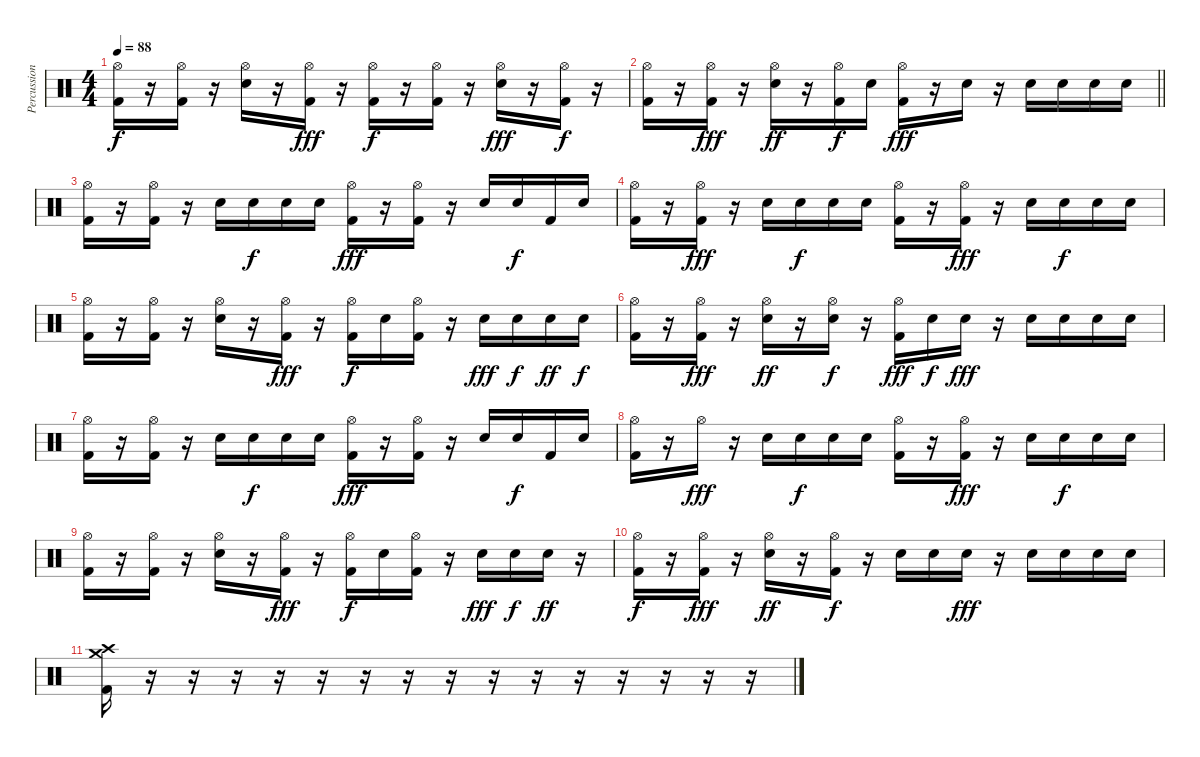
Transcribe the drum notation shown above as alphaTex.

\track ("Percussion" "Percussion") {instrument percussion}
\staff {score}
\articulation defaults
\ts (4 4)
\tempo 88
\clef neutral
\ks c
("Hi-Hat (open)" "Kick (hit) 2").16{dy f} r.16 ("Hi-Hat (open)" "Kick (hit) 2").16 r.16 ("Hi-Hat (open)" "Snare (hit) 2").16 r.16 ("Hi-Hat (open)" "Kick (hit) 2").16{dy fff} r.16 ("Hi-Hat (open)" "Kick (hit) 2").16{dy f} r.16 ("Hi-Hat (open)" "Kick (hit) 2").16 r.16 ("Hi-Hat (open)" "Snare (hit) 2").16{dy fff} r.16 ("Hi-Hat (open)" "Kick (hit) 2").16{dy f} r.16 |
\barLineRight lightlight
("Hi-Hat (open)" "Kick (hit) 2").16 r.16 ("Hi-Hat (open)" "Kick (hit) 2").16{dy fff} r.16 ("Hi-Hat (open)" "Snare (hit) 2").16{dy ff} r.16 ("Hi-Hat (open)" "Kick (hit) 2").16{dy f} "Snare (hit) 2".16 ("Hi-Hat (open)" "Kick (hit) 2").16{dy fff} r.16 "Snare (hit) 2".16 r.16 "Snare (hit) 2".16 "Snare (hit) 2".16 "Snare (hit) 2".16 "Snare (hit) 2".16 |
("Hi-Hat (open)" "Kick (hit) 2").16 r.16 ("Hi-Hat (open)" "Kick (hit) 2").16 r.16 "Snare (hit) 2".16 "Snare (hit) 2".16{dy f} "Snare (hit) 2".16 "Snare (hit) 2".16 ("Hi-Hat (open)" "Kick (hit) 2").16{dy fff} r.16 ("Hi-Hat (open)" "Kick (hit) 2").16 r.16 "Snare (hit) 2".16 "Snare (hit) 2".16{dy f} "Kick (hit) 2".16 "Snare (hit) 2".16 |
("Hi-Hat (open)" "Kick (hit) 2").16 r.16 ("Hi-Hat (open)" "Kick (hit) 2").16{dy fff} r.16 "Snare (hit) 2".16 "Snare (hit) 2".16{dy f} "Snare (hit) 2".16 "Snare (hit) 2".16 ("Hi-Hat (open)" "Kick (hit) 2").16 r.16 ("Hi-Hat (open)" "Kick (hit) 2").16{dy fff} r.16 "Snare (hit) 2".16 "Snare (hit) 2".16{dy f} "Snare (hit) 2".16 "Snare (hit) 2".16 |
("Hi-Hat (open)" "Kick (hit) 2").16 r.16 ("Hi-Hat (open)" "Kick (hit) 2").16 r.16 ("Hi-Hat (open)" "Snare (hit) 2").16 r.16 ("Hi-Hat (open)" "Kick (hit) 2").16{dy fff} r.16 ("Hi-Hat (open)" "Kick (hit) 2").16{dy f} "Snare (hit) 2".16 ("Hi-Hat (open)" "Kick (hit) 2").16 r.16 "Snare (hit) 2".16{dy fff} "Snare (hit) 2".16{dy f} "Snare (hit) 2".16{dy ff} "Snare (hit) 2".16{dy f} |
("Hi-Hat (open)" "Kick (hit) 2").16 r.16 ("Hi-Hat (open)" "Kick (hit) 2").16{dy fff} r.16 ("Hi-Hat (open)" "Snare (hit) 2").16{dy ff} r.16 ("Hi-Hat (open)" "Snare (hit) 2").16{dy f} r.16 ("Hi-Hat (open)" "Kick (hit) 2").16{dy fff} "Snare (hit) 2".16{dy f} "Snare (hit) 2".16{dy fff} r.16 "Snare (hit) 2".16 "Snare (hit) 2".16 "Snare (hit) 2".16 "Snare (hit) 2".16 |
("Hi-Hat (open)" "Kick (hit) 2").16 r.16 ("Hi-Hat (open)" "Kick (hit) 2").16 r.16 "Snare (hit) 2".16 "Snare (hit) 2".16{dy f} "Snare (hit) 2".16 "Snare (hit) 2".16 ("Hi-Hat (open)" "Kick (hit) 2").16{dy fff} r.16 ("Hi-Hat (open)" "Kick (hit) 2").16 r.16 "Snare (hit) 2".16 "Snare (hit) 2".16{dy f} "Kick (hit) 2".16 "Snare (hit) 2".16 |
("Hi-Hat (open)" "Kick (hit) 2").16 r.16 "Hi-Hat (open)".16{dy fff} r.16 "Snare (hit) 2".16 "Snare (hit) 2".16{dy f} "Snare (hit) 2".16 "Snare (hit) 2".16 ("Hi-Hat (open)" "Kick (hit) 2").16 r.16 ("Hi-Hat (open)" "Kick (hit) 2").16{dy fff} r.16 "Snare (hit) 2".16 "Snare (hit) 2".16{dy f} "Snare (hit) 2".16 "Snare (hit) 2".16 |
("Hi-Hat (open)" "Kick (hit) 2").16 r.16 ("Hi-Hat (open)" "Kick (hit) 2").16 r.16 ("Hi-Hat (open)" "Snare (hit) 2").16 r.16 ("Hi-Hat (open)" "Kick (hit) 2").16{dy fff} r.16 ("Hi-Hat (open)" "Kick (hit) 2").16{dy f} "Snare (hit) 2".16 ("Hi-Hat (open)" "Kick (hit) 2").16 r.16 "Snare (hit) 2".16{dy fff} "Snare (hit) 2".16{dy f} "Snare (hit) 2".16{dy ff} r.16 |
("Hi-Hat (open)" "Kick (hit) 2").16{dy f} r.16 ("Hi-Hat (open)" "Kick (hit) 2").16{dy fff} r.16 ("Hi-Hat (open)" "Snare (hit) 2").16{dy ff} r.16 ("Hi-Hat (open)" "Kick (hit) 2").16{dy f} r.16 "Snare (hit) 2".16 "Snare (hit) 2".16 "Snare (hit) 2".16{dy fff} r.16 "Snare (hit) 2".16 "Snare (hit) 2".16 "Snare (hit) 2".16 "Snare (hit) 2".16 |
("Crash high (hit)" "Crash medium (hit)" "Kick (hit) 2").16 r.16 r.16 r.16 r.16 r.16 r.16 r.16 r.16 r.16 r.16 r.16 r.16 r.16 r.16 r.16
